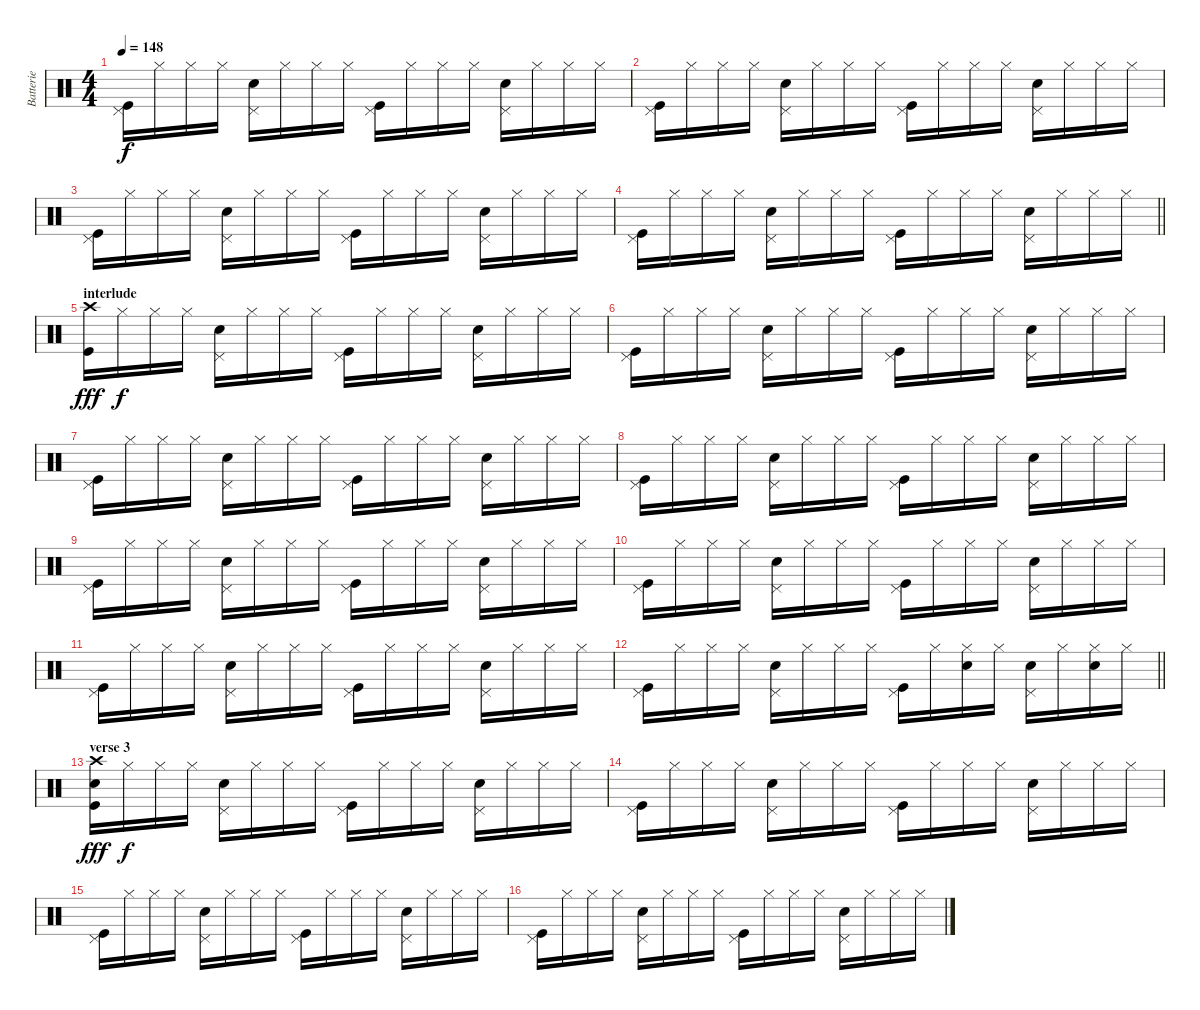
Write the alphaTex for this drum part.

\track ("Batterie" "Batterie") {instrument percussion}
\staff {score}
\articulation defaults
\ts (4 4)
\tempo 148
\clef neutral
\ks c
("Pedal Hi-Hat (hit)" "Kick (hit)").16{dy f} "Hi-Hat (closed)".16 "Hi-Hat (closed)".16 "Hi-Hat (closed)".16 ("Pedal Hi-Hat (hit)" "Electric Snare (hit)").16 "Hi-Hat (closed)".16 "Hi-Hat (closed)".16 "Hi-Hat (closed)".16 ("Pedal Hi-Hat (hit)" "Kick (hit)").16 "Hi-Hat (closed)".16 "Hi-Hat (closed)".16 "Hi-Hat (closed)".16 ("Pedal Hi-Hat (hit)" "Electric Snare (hit)").16 "Hi-Hat (closed)".16 "Hi-Hat (closed)".16 "Hi-Hat (closed)".16 |
("Pedal Hi-Hat (hit)" "Kick (hit)").16 "Hi-Hat (closed)".16 "Hi-Hat (closed)".16 "Hi-Hat (closed)".16 ("Pedal Hi-Hat (hit)" "Electric Snare (hit)").16 "Hi-Hat (closed)".16 "Hi-Hat (closed)".16 "Hi-Hat (closed)".16 ("Pedal Hi-Hat (hit)" "Kick (hit)").16 "Hi-Hat (closed)".16 "Hi-Hat (closed)".16 "Hi-Hat (closed)".16 ("Pedal Hi-Hat (hit)" "Electric Snare (hit)").16 "Hi-Hat (closed)".16 "Hi-Hat (closed)".16 "Hi-Hat (closed)".16 |
("Pedal Hi-Hat (hit)" "Kick (hit)").16 "Hi-Hat (closed)".16 "Hi-Hat (closed)".16 "Hi-Hat (closed)".16 ("Pedal Hi-Hat (hit)" "Electric Snare (hit)").16 "Hi-Hat (closed)".16 "Hi-Hat (closed)".16 "Hi-Hat (closed)".16 ("Pedal Hi-Hat (hit)" "Kick (hit)").16 "Hi-Hat (closed)".16 "Hi-Hat (closed)".16 "Hi-Hat (closed)".16 ("Pedal Hi-Hat (hit)" "Electric Snare (hit)").16 "Hi-Hat (closed)".16 "Hi-Hat (closed)".16 "Hi-Hat (closed)".16 |
\barLineRight lightlight
("Pedal Hi-Hat (hit)" "Kick (hit)").16 "Hi-Hat (closed)".16 "Hi-Hat (closed)".16 "Hi-Hat (closed)".16 ("Pedal Hi-Hat (hit)" "Electric Snare (hit)").16 "Hi-Hat (closed)".16 "Hi-Hat (closed)".16 "Hi-Hat (closed)".16 ("Pedal Hi-Hat (hit)" "Kick (hit)").16 "Hi-Hat (closed)".16 "Hi-Hat (closed)".16 "Hi-Hat (closed)".16 ("Pedal Hi-Hat (hit)" "Electric Snare (hit)").16 "Hi-Hat (closed)".16 "Hi-Hat (closed)".16 "Hi-Hat (closed)".16 |
\section ("" "interlude")
("Crash high (hit)" "Kick (hit)").16{dy fff} "Hi-Hat (closed)".16{dy f} "Hi-Hat (closed)".16 "Hi-Hat (closed)".16 ("Pedal Hi-Hat (hit)" "Electric Snare (hit)").16 "Hi-Hat (closed)".16 "Hi-Hat (closed)".16 "Hi-Hat (closed)".16 ("Pedal Hi-Hat (hit)" "Kick (hit)").16 "Hi-Hat (closed)".16 "Hi-Hat (closed)".16 "Hi-Hat (closed)".16 ("Pedal Hi-Hat (hit)" "Electric Snare (hit)").16 "Hi-Hat (closed)".16 "Hi-Hat (closed)".16 "Hi-Hat (closed)".16 |
("Pedal Hi-Hat (hit)" "Kick (hit)").16 "Hi-Hat (closed)".16 "Hi-Hat (closed)".16 "Hi-Hat (closed)".16 ("Pedal Hi-Hat (hit)" "Electric Snare (hit)").16 "Hi-Hat (closed)".16 "Hi-Hat (closed)".16 "Hi-Hat (closed)".16 ("Pedal Hi-Hat (hit)" "Kick (hit)").16 "Hi-Hat (closed)".16 "Hi-Hat (closed)".16 "Hi-Hat (closed)".16 ("Pedal Hi-Hat (hit)" "Electric Snare (hit)").16 "Hi-Hat (closed)".16 "Hi-Hat (closed)".16 "Hi-Hat (closed)".16 |
("Pedal Hi-Hat (hit)" "Kick (hit)").16 "Hi-Hat (closed)".16 "Hi-Hat (closed)".16 "Hi-Hat (closed)".16 ("Pedal Hi-Hat (hit)" "Electric Snare (hit)").16 "Hi-Hat (closed)".16 "Hi-Hat (closed)".16 "Hi-Hat (closed)".16 ("Pedal Hi-Hat (hit)" "Kick (hit)").16 "Hi-Hat (closed)".16 "Hi-Hat (closed)".16 "Hi-Hat (closed)".16 ("Pedal Hi-Hat (hit)" "Electric Snare (hit)").16 "Hi-Hat (closed)".16 "Hi-Hat (closed)".16 "Hi-Hat (closed)".16 |
("Pedal Hi-Hat (hit)" "Kick (hit)").16 "Hi-Hat (closed)".16 "Hi-Hat (closed)".16 "Hi-Hat (closed)".16 ("Pedal Hi-Hat (hit)" "Electric Snare (hit)").16 "Hi-Hat (closed)".16 "Hi-Hat (closed)".16 "Hi-Hat (closed)".16 ("Pedal Hi-Hat (hit)" "Kick (hit)").16 "Hi-Hat (closed)".16 "Hi-Hat (closed)".16 "Hi-Hat (closed)".16 ("Pedal Hi-Hat (hit)" "Electric Snare (hit)").16 "Hi-Hat (closed)".16 "Hi-Hat (closed)".16 "Hi-Hat (closed)".16 |
("Pedal Hi-Hat (hit)" "Kick (hit)").16 "Hi-Hat (closed)".16 "Hi-Hat (closed)".16 "Hi-Hat (closed)".16 ("Pedal Hi-Hat (hit)" "Electric Snare (hit)").16 "Hi-Hat (closed)".16 "Hi-Hat (closed)".16 "Hi-Hat (closed)".16 ("Pedal Hi-Hat (hit)" "Kick (hit)").16 "Hi-Hat (closed)".16 "Hi-Hat (closed)".16 "Hi-Hat (closed)".16 ("Pedal Hi-Hat (hit)" "Electric Snare (hit)").16 "Hi-Hat (closed)".16 "Hi-Hat (closed)".16 "Hi-Hat (closed)".16 |
("Pedal Hi-Hat (hit)" "Kick (hit)").16 "Hi-Hat (closed)".16 "Hi-Hat (closed)".16 "Hi-Hat (closed)".16 ("Pedal Hi-Hat (hit)" "Electric Snare (hit)").16 "Hi-Hat (closed)".16 "Hi-Hat (closed)".16 "Hi-Hat (closed)".16 ("Pedal Hi-Hat (hit)" "Kick (hit)").16 "Hi-Hat (closed)".16 "Hi-Hat (closed)".16 "Hi-Hat (closed)".16 ("Pedal Hi-Hat (hit)" "Electric Snare (hit)").16 "Hi-Hat (closed)".16 "Hi-Hat (closed)".16 "Hi-Hat (closed)".16 |
("Pedal Hi-Hat (hit)" "Kick (hit)").16 "Hi-Hat (closed)".16 "Hi-Hat (closed)".16 "Hi-Hat (closed)".16 ("Pedal Hi-Hat (hit)" "Electric Snare (hit)").16 "Hi-Hat (closed)".16 "Hi-Hat (closed)".16 "Hi-Hat (closed)".16 ("Pedal Hi-Hat (hit)" "Kick (hit)").16 "Hi-Hat (closed)".16 "Hi-Hat (closed)".16 "Hi-Hat (closed)".16 ("Pedal Hi-Hat (hit)" "Electric Snare (hit)").16 "Hi-Hat (closed)".16 "Hi-Hat (closed)".16 "Hi-Hat (closed)".16 |
\barLineRight lightlight
("Pedal Hi-Hat (hit)" "Kick (hit)").16 "Hi-Hat (closed)".16 "Hi-Hat (closed)".16 "Hi-Hat (closed)".16 ("Pedal Hi-Hat (hit)" "Electric Snare (hit)").16 "Hi-Hat (closed)".16 "Hi-Hat (closed)".16 "Hi-Hat (closed)".16 ("Pedal Hi-Hat (hit)" "Kick (hit)").16 "Hi-Hat (closed)".16 ("Hi-Hat (closed)" "Electric Snare (hit)").16 "Hi-Hat (closed)".16 ("Pedal Hi-Hat (hit)" "Electric Snare (hit)").16 "Hi-Hat (closed)".16 ("Hi-Hat (closed)" "Electric Snare (hit)").16 "Hi-Hat (closed)".16 |
\section ("" "verse 3")
("Crash high (hit)" "Electric Snare (hit)" "Kick (hit)").16{dy fff} "Hi-Hat (closed)".16{dy f} "Hi-Hat (closed)".16 "Hi-Hat (closed)".16 ("Pedal Hi-Hat (hit)" "Electric Snare (hit)").16 "Hi-Hat (closed)".16 "Hi-Hat (closed)".16 "Hi-Hat (closed)".16 ("Pedal Hi-Hat (hit)" "Kick (hit)").16 "Hi-Hat (closed)".16 "Hi-Hat (closed)".16 "Hi-Hat (closed)".16 ("Pedal Hi-Hat (hit)" "Electric Snare (hit)").16 "Hi-Hat (closed)".16 "Hi-Hat (closed)".16 "Hi-Hat (closed)".16 |
("Pedal Hi-Hat (hit)" "Kick (hit)").16 "Hi-Hat (closed)".16 "Hi-Hat (closed)".16 "Hi-Hat (closed)".16 ("Pedal Hi-Hat (hit)" "Electric Snare (hit)").16 "Hi-Hat (closed)".16 "Hi-Hat (closed)".16 "Hi-Hat (closed)".16 ("Pedal Hi-Hat (hit)" "Kick (hit)").16 "Hi-Hat (closed)".16 "Hi-Hat (closed)".16 "Hi-Hat (closed)".16 ("Pedal Hi-Hat (hit)" "Electric Snare (hit)").16 "Hi-Hat (closed)".16 "Hi-Hat (closed)".16 "Hi-Hat (closed)".16 |
("Pedal Hi-Hat (hit)" "Kick (hit)").16 "Hi-Hat (closed)".16 "Hi-Hat (closed)".16 "Hi-Hat (closed)".16 ("Pedal Hi-Hat (hit)" "Electric Snare (hit)").16 "Hi-Hat (closed)".16 "Hi-Hat (closed)".16 "Hi-Hat (closed)".16 ("Pedal Hi-Hat (hit)" "Kick (hit)").16 "Hi-Hat (closed)".16 "Hi-Hat (closed)".16 "Hi-Hat (closed)".16 ("Pedal Hi-Hat (hit)" "Electric Snare (hit)").16 "Hi-Hat (closed)".16 "Hi-Hat (closed)".16 "Hi-Hat (closed)".16 |
("Pedal Hi-Hat (hit)" "Kick (hit)").16 "Hi-Hat (closed)".16 "Hi-Hat (closed)".16 "Hi-Hat (closed)".16 ("Pedal Hi-Hat (hit)" "Electric Snare (hit)").16 "Hi-Hat (closed)".16 "Hi-Hat (closed)".16 "Hi-Hat (closed)".16 ("Pedal Hi-Hat (hit)" "Kick (hit)").16 "Hi-Hat (closed)".16 "Hi-Hat (closed)".16 "Hi-Hat (closed)".16 ("Pedal Hi-Hat (hit)" "Electric Snare (hit)").16 "Hi-Hat (closed)".16 "Hi-Hat (closed)".16 "Hi-Hat (closed)".16
